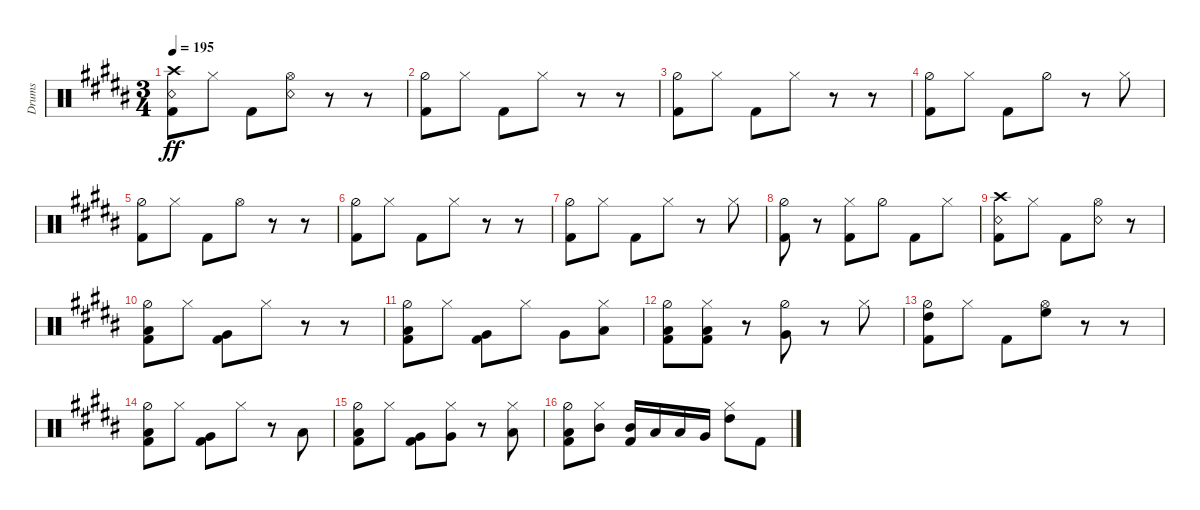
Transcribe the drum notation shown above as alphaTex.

\bracketExtendMode groupsimilarinstruments
\otherSystemsTrackNameOrientation horizontal
\track ("Drumkit" "Drums") {instrument percussion}
\staff {score}
\articulation defaults
\ts (3 4)
\tempo 195
\clef neutral
\ks b
("Kick (hit) 2"{acc bb} "Snare (rim shot)"{acc bb} "Crash high (hit)"{acc bb}).8{dy ff beam Down} "Hi-Hat (closed)"{acc bb}.8{beam Down} "Kick (hit) 2"{acc bb}.8{beam Down} ("Snare (rim shot)"{acc bb} "Hi-Hat (open)"{acc bb}).8{beam Down} r.8{beam Down} r.8{beam Down} |
("Kick (hit) 2"{acc bb} "Hi-Hat (half)"{acc bb}).8{beam Down} "Hi-Hat (closed)"{acc bb}.8{beam Down} "Kick (hit) 2"{acc bb}.8{beam Down} "Hi-Hat (closed)"{acc bb}.8{beam Down} r.8{beam Down} r.8{beam Down} |
("Kick (hit) 2"{acc bb} "Hi-Hat (half)"{acc bb}).8{beam Down} "Hi-Hat (closed)"{acc bb}.8{beam Down} "Kick (hit) 2"{acc bb}.8{beam Down} "Hi-Hat (closed)"{acc bb}.8{beam Down} r.8{beam Down} r.8{beam Down} |
("Kick (hit) 2"{acc bb} "Hi-Hat (half)"{acc bb}).8{beam Down} "Hi-Hat (closed)"{acc bb}.8{beam Down} "Kick (hit) 2"{acc bb}.8{beam Down} "Hi-Hat (half)"{acc bb}.8{beam Down} r.8{beam Down} "Hi-Hat (closed)"{acc bb}.8{beam Down} |
("Kick (hit) 2"{acc bb} "Hi-Hat (half)"{acc bb}).8{beam Down} "Hi-Hat (closed)"{acc bb}.8{beam Down} "Kick (hit) 2"{acc bb}.8{beam Down} "Hi-Hat (open)"{acc bb}.8{beam Down} r.8{beam Down} r.8{beam Down} |
("Kick (hit) 2"{acc bb} "Hi-Hat (half)"{acc bb}).8{beam Down} "Hi-Hat (closed)"{acc bb}.8{beam Down} "Kick (hit) 2"{acc bb}.8{beam Down} "Hi-Hat (closed)"{acc bb}.8{beam Down} r.8{beam Down} r.8{beam Down} |
("Kick (hit) 2"{acc bb} "Hi-Hat (half)"{acc bb}).8{beam Down} "Hi-Hat (closed)"{acc bb}.8{beam Down} "Kick (hit) 2"{acc bb}.8{beam Down} "Hi-Hat (closed)"{acc bb}.8{beam Down} r.8{beam Down} "Hi-Hat (closed)"{acc bb}.8{beam Down} |
("Kick (hit) 2"{acc bb} "Hi-Hat (half)"{acc bb}).8{beam Down} r.8{beam Down} ("Kick (hit) 2"{acc bb} "Hi-Hat (closed)"{acc bb}).8{beam Down} "Hi-Hat (half)"{acc bb}.8{beam Down} "Kick (hit) 2"{acc bb}.8{beam Down} "Hi-Hat (closed)"{acc bb}.8{beam Down} |
("Kick (hit) 2"{acc bb} "Snare (rim shot)"{acc bb} "Crash high (hit)"{acc bb}).8{beam Down} "Hi-Hat (closed)"{acc bb}.8{beam Down} "Kick (hit) 2"{acc bb}.8{beam Down} ("Snare (rim shot)"{acc bb} "Hi-Hat (open)"{acc bb}).8{beam Down} r.8{beam Down} |
("Kick (hit) 2"{acc bb} "Hi-Hat (half)"{acc bb} "Low Tom (hit)"{acc bb}).8{beam Down} "Hi-Hat (closed)"{acc bb}.8{beam Down} ("Kick (hit) 2"{acc bb} "Very Low Tom (hit)"{acc bb}).8{beam Down} "Hi-Hat (closed)"{acc bb}.8{beam Down} r.8{beam Down} r.8{beam Down} |
("Kick (hit) 2"{acc bb} "Hi-Hat (half)"{acc bb} "Low Tom (hit)"{acc bb}).8{beam Down} "Hi-Hat (closed)"{acc bb}.8{beam Down} ("Kick (hit) 2"{acc bb} "Very Low Tom (hit)"{acc bb}).8{beam Down} "Hi-Hat (closed)"{acc bb}.8{beam Down} "Very Low Tom (hit)"{acc bb}.8{beam Down} ("Hi-Hat (closed)"{acc bb} "Low Tom (hit)"{acc bb}).8{beam Down} |
("Kick (hit) 2"{acc bb} "Hi-Hat (half)"{acc bb} "Low Tom (hit)"{acc bb}).8{beam Down} ("Hi-Hat (closed)"{acc bb} "Low Tom (hit)"{acc bb} "Kick (hit) 2"{acc bb}).8{beam Down} r.8{beam Down} ("Hi-Hat (half)"{acc bb} "Very Low Tom (hit)"{acc bb}).8{beam Down} r.8{beam Down} "Hi-Hat (closed)"{acc bb}.8{beam Down} |
("Kick (hit) 2"{acc bb} "High Tom (hit)"{acc bb} "Hi-Hat (half)"{acc bb}).8{beam Down} "Hi-Hat (closed)"{acc bb}.8{beam Down} "Kick (hit) 2"{acc bb}.8{beam Down} ("Hi-Hat (open)"{acc bb} "High Floor Tom (hit)"{acc bb}).8{beam Down} r.8{beam Down} r.8{beam Down} |
("Kick (hit) 2"{acc bb} "Hi-Hat (half)"{acc bb} "Low Tom (hit)"{acc bb}).8{beam Down} "Hi-Hat (closed)"{acc bb}.8{beam Down} ("Kick (hit) 2"{acc bb} "Very Low Tom (hit)"{acc bb}).8{beam Down} "Hi-Hat (closed)"{acc bb}.8{beam Down} r.8{beam Down} "Low Tom (hit)"{acc bb}.8{beam Up} |
("Kick (hit) 2"{acc bb} "Hi-Hat (half)"{acc bb} "Low Tom (hit)"{acc bb}).8{beam Down} "Hi-Hat (closed)"{acc bb}.8{beam Down} ("Kick (hit) 2"{acc bb} "Very Low Tom (hit)"{acc bb}).8{beam Down} ("Hi-Hat (closed)"{acc bb} "Very Low Tom (hit)"{acc bb}).8{beam Down} r.8{beam Down} ("Hi-Hat (closed)"{acc bb} "Low Tom (hit)"{acc bb}).8{beam Down} |
("Kick (hit) 2"{acc bb} "Hi-Hat (half)"{acc bb} "Low Tom (hit)"{acc bb}).8{beam Down} ("Hi-Hat (closed)"{acc bb} "Mid Tom (hit)"{acc bb}).8{beam Down} ("Kick (hit) 2"{acc bb} "Mid Tom (hit)"{acc bb}).16{beam Up} "Low Tom (hit)"{acc bb}.16{beam Up} "Low Tom (hit)"{acc bb}.16{beam Up} "Very Low Tom (hit)"{acc bb}.16{beam Up} ("High Tom (hit)"{acc bb} "Hi-Hat (closed)"{acc bb}).8{beam Down} "Kick (hit) 2"{acc bb}.8{beam Down}
